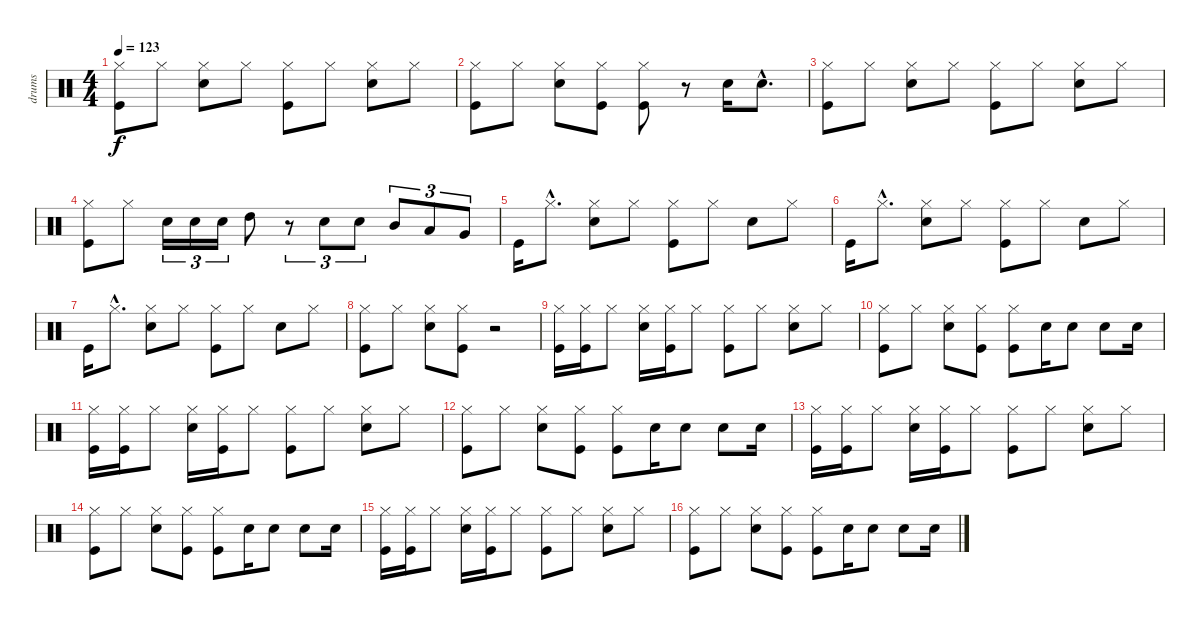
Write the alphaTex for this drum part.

\track ("drums" "drums") {instrument percussion}
\staff {score}
\articulation defaults
\ts (4 4)
\tempo 123
\clef neutral
\ks c
("Hi-Hat (closed)" "Kick (hit)").8{dy f} "Hi-Hat (closed)".8 ("Hi-Hat (closed)" "Electric Snare (hit)").8 "Hi-Hat (closed)".8 ("Hi-Hat (closed)" "Kick (hit)").8 "Hi-Hat (closed)".8 ("Hi-Hat (closed)" "Electric Snare (hit)").8 "Hi-Hat (closed)".8 |
("Hi-Hat (closed)" "Kick (hit)").8 "Hi-Hat (closed)".8 ("Hi-Hat (closed)" "Electric Snare (hit)").8 ("Hi-Hat (closed)" "Kick (hit)").8 ("Hi-Hat (closed)" "Kick (hit)").8 r.8 "Electric Snare (hit)".16 "Electric Snare (hit)"{hac}.8{d} |
("Hi-Hat (closed)" "Kick (hit)").8 "Hi-Hat (closed)".8 ("Hi-Hat (closed)" "Electric Snare (hit)").8 "Hi-Hat (closed)".8 ("Hi-Hat (closed)" "Kick (hit)").8 "Hi-Hat (closed)".8 ("Hi-Hat (closed)" "Electric Snare (hit)").8 "Hi-Hat (closed)".8 |
("Hi-Hat (closed)" "Kick (hit)").8 "Hi-Hat (closed)".8 "Electric Snare (hit)".16{tu (3 2)} "Electric Snare (hit)".16{tu (3 2)} "Electric Snare (hit)".16{tu (3 2)} "High Tom (hit)".8 r.8{tu (3 2)} "Electric Snare (hit)".8{tu (3 2)} "Electric Snare (hit)".8{tu (3 2)} "Mid Tom (hit)".8{tu (3 2)} "Low Tom (hit)".8{tu (3 2)} "Very Low Tom (hit)".8{tu (3 2)} |
"Kick (hit)".16 "Hi-Hat (closed)"{hac}.8{d} ("Hi-Hat (closed)" "Electric Snare (hit)").8 "Hi-Hat (closed)".8 ("Hi-Hat (closed)" "Kick (hit)").8 "Hi-Hat (closed)".8 "Electric Snare (hit)".8 "Hi-Hat (closed)".8 |
"Kick (hit)".16 "Hi-Hat (closed)"{hac}.8{d} ("Hi-Hat (closed)" "Electric Snare (hit)").8 "Hi-Hat (closed)".8 ("Hi-Hat (closed)" "Kick (hit)").8 "Hi-Hat (closed)".8 "Electric Snare (hit)".8 "Hi-Hat (closed)".8 |
"Kick (hit)".16 "Hi-Hat (closed)"{hac}.8{d} ("Hi-Hat (closed)" "Electric Snare (hit)").8 "Hi-Hat (closed)".8 ("Hi-Hat (closed)" "Kick (hit)").8 "Hi-Hat (closed)".8 "Electric Snare (hit)".8 "Hi-Hat (closed)".8 |
("Hi-Hat (closed)" "Kick (hit)").8 "Hi-Hat (closed)".8 ("Hi-Hat (closed)" "Electric Snare (hit)").8 ("Hi-Hat (closed)" "Kick (hit)").8 r.2 |
("Hi-Hat (closed)" "Kick (hit)").16 ("Hi-Hat (closed)" "Kick (hit)").16 "Hi-Hat (closed)".8 ("Hi-Hat (closed)" "Electric Snare (hit)").16 ("Hi-Hat (closed)" "Kick (hit)").16 "Hi-Hat (closed)".8 ("Hi-Hat (closed)" "Kick (hit)").8 "Hi-Hat (closed)".8 ("Hi-Hat (closed)" "Electric Snare (hit)").8 "Hi-Hat (closed)".8 |
("Hi-Hat (closed)" "Kick (hit)").8 "Hi-Hat (closed)".8 ("Hi-Hat (closed)" "Electric Snare (hit)").8 ("Hi-Hat (closed)" "Kick (hit)").8 ("Hi-Hat (closed)" "Kick (hit)").8 "Electric Snare (hit)".16 "Electric Snare (hit)".8 "Electric Snare (hit)".8 "Electric Snare (hit)".16 |
("Hi-Hat (closed)" "Kick (hit)").16 ("Hi-Hat (closed)" "Kick (hit)").16 "Hi-Hat (closed)".8 ("Hi-Hat (closed)" "Electric Snare (hit)").16 ("Hi-Hat (closed)" "Kick (hit)").16 "Hi-Hat (closed)".8 ("Hi-Hat (closed)" "Kick (hit)").8 "Hi-Hat (closed)".8 ("Hi-Hat (closed)" "Electric Snare (hit)").8 "Hi-Hat (closed)".8 |
("Hi-Hat (closed)" "Kick (hit)").8 "Hi-Hat (closed)".8 ("Hi-Hat (closed)" "Electric Snare (hit)").8 ("Hi-Hat (closed)" "Kick (hit)").8 ("Hi-Hat (closed)" "Kick (hit)").8 "Electric Snare (hit)".16 "Electric Snare (hit)".8 "Electric Snare (hit)".8 "Electric Snare (hit)".16 |
("Hi-Hat (closed)" "Kick (hit)").16 ("Hi-Hat (closed)" "Kick (hit)").16 "Hi-Hat (closed)".8 ("Hi-Hat (closed)" "Electric Snare (hit)").16 ("Hi-Hat (closed)" "Kick (hit)").16 "Hi-Hat (closed)".8 ("Hi-Hat (closed)" "Kick (hit)").8 "Hi-Hat (closed)".8 ("Hi-Hat (closed)" "Electric Snare (hit)").8 "Hi-Hat (closed)".8 |
("Hi-Hat (closed)" "Kick (hit)").8 "Hi-Hat (closed)".8 ("Hi-Hat (closed)" "Electric Snare (hit)").8 ("Hi-Hat (closed)" "Kick (hit)").8 ("Hi-Hat (closed)" "Kick (hit)").8 "Electric Snare (hit)".16 "Electric Snare (hit)".8 "Electric Snare (hit)".8 "Electric Snare (hit)".16 |
("Hi-Hat (closed)" "Kick (hit)").16 ("Hi-Hat (closed)" "Kick (hit)").16 "Hi-Hat (closed)".8 ("Hi-Hat (closed)" "Electric Snare (hit)").16 ("Hi-Hat (closed)" "Kick (hit)").16 "Hi-Hat (closed)".8 ("Hi-Hat (closed)" "Kick (hit)").8 "Hi-Hat (closed)".8 ("Hi-Hat (closed)" "Electric Snare (hit)").8 "Hi-Hat (closed)".8 |
("Hi-Hat (closed)" "Kick (hit)").8 "Hi-Hat (closed)".8 ("Hi-Hat (closed)" "Electric Snare (hit)").8 ("Hi-Hat (closed)" "Kick (hit)").8 ("Hi-Hat (closed)" "Kick (hit)").8 "Electric Snare (hit)".16 "Electric Snare (hit)".8 "Electric Snare (hit)".8 "Electric Snare (hit)".16
